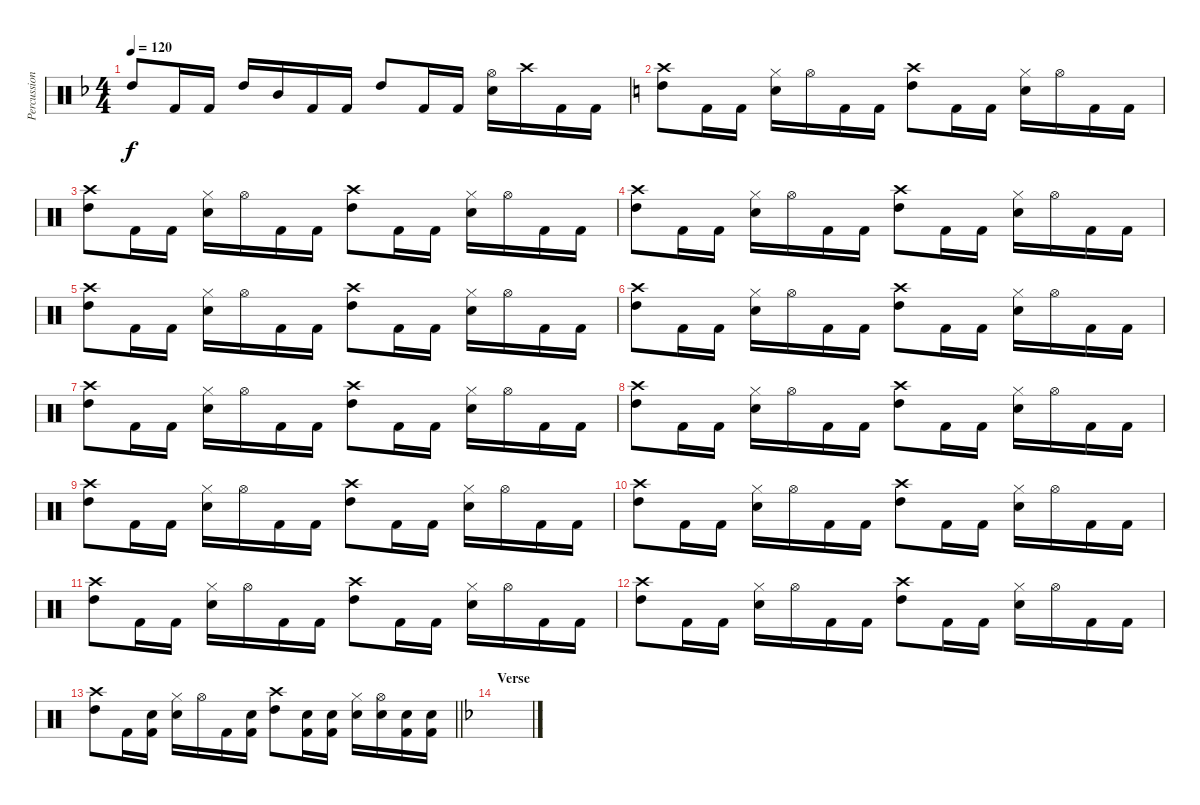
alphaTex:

\track ("Percussion" "Percussion") {instrument percussion}
\staff {score}
\articulation defaults
\ts (4 4)
\tempo 120
\clef neutral
\ks dminor "High Tom (hit)".8{dy f} "Kick (hit) 2".16 "Kick (hit) 2".16 "High Tom (hit)".16 "Mid Tom (hit)".16 "Kick (hit) 2".16 "Kick (hit) 2".16 "High Tom (hit)".8 "Kick (hit) 2".16 "Kick (hit) 2".16
("Hi-Hat (open)" "Electric Snare (hit)").16 "Crash high (hit)".16 "Kick (hit) 2".16 "Kick (hit) 2".16 |
\ks c
("Crash high (hit)" "High Tom (hit)").8 "Kick (hit) 2".16 "Kick (hit) 2".16 ("Hi-Hat (closed)" "Electric Snare (hit)").16 "Hi-Hat (open)".16 "Kick (hit) 2".16 "Kick (hit) 2".16 ("Crash high (hit)" "High Tom (hit)").8 "Kick (hit) 2".16 "Kick (hit) 2".16 ("Hi-Hat (closed)" "Electric Snare (hit)").16 "Hi-Hat (open)".16 "Kick (hit) 2".16 "Kick (hit) 2".16 |
("Crash high (hit)" "High Tom (hit)").8 "Kick (hit) 2".16 "Kick (hit) 2".16 ("Hi-Hat (closed)" "Electric Snare (hit)").16 "Hi-Hat (open)".16 "Kick (hit) 2".16 "Kick (hit) 2".16 ("Crash high (hit)" "High Tom (hit)").8 "Kick (hit) 2".16 "Kick (hit) 2".16 ("Hi-Hat (closed)" "Electric Snare (hit)").16 "Hi-Hat (open)".16 "Kick (hit) 2".16 "Kick (hit) 2".16 |
("Crash high (hit)" "High Tom (hit)").8 "Kick (hit) 2".16 "Kick (hit) 2".16 ("Hi-Hat (closed)" "Electric Snare (hit)").16 "Hi-Hat (open)".16 "Kick (hit) 2".16 "Kick (hit) 2".16 ("Crash high (hit)" "High Tom (hit)").8 "Kick (hit) 2".16 "Kick (hit) 2".16 ("Hi-Hat (closed)" "Electric Snare (hit)").16 "Hi-Hat (open)".16 "Kick (hit) 2".16 "Kick (hit) 2".16 |
("Crash high (hit)" "High Tom (hit)").8 "Kick (hit) 2".16 "Kick (hit) 2".16 ("Hi-Hat (closed)" "Electric Snare (hit)").16 "Hi-Hat (open)".16 "Kick (hit) 2".16 "Kick (hit) 2".16 ("Crash high (hit)" "High Tom (hit)").8 "Kick (hit) 2".16 "Kick (hit) 2".16 ("Hi-Hat (closed)" "Electric Snare (hit)").16 "Hi-Hat (open)".16 "Kick (hit) 2".16 "Kick (hit) 2".16 |
("Crash high (hit)" "High Tom (hit)").8 "Kick (hit) 2".16 "Kick (hit) 2".16 ("Hi-Hat (closed)" "Electric Snare (hit)").16 "Hi-Hat (open)".16 "Kick (hit) 2".16 "Kick (hit) 2".16 ("Crash high (hit)" "High Tom (hit)").8 "Kick (hit) 2".16 "Kick (hit) 2".16 ("Hi-Hat (closed)" "Electric Snare (hit)").16 "Hi-Hat (open)".16 "Kick (hit) 2".16 "Kick (hit) 2".16 |
("Crash high (hit)" "High Tom (hit)").8 "Kick (hit) 2".16 "Kick (hit) 2".16 ("Hi-Hat (closed)" "Electric Snare (hit)").16 "Hi-Hat (open)".16 "Kick (hit) 2".16 "Kick (hit) 2".16 ("Crash high (hit)" "High Tom (hit)").8 "Kick (hit) 2".16 "Kick (hit) 2".16 ("Hi-Hat (closed)" "Electric Snare (hit)").16 "Hi-Hat (open)".16 "Kick (hit) 2".16 "Kick (hit) 2".16 |
("Crash high (hit)" "High Tom (hit)").8 "Kick (hit) 2".16 "Kick (hit) 2".16 ("Hi-Hat (closed)" "Electric Snare (hit)").16 "Hi-Hat (open)".16 "Kick (hit) 2".16 "Kick (hit) 2".16 ("Crash high (hit)" "High Tom (hit)").8 "Kick (hit) 2".16 "Kick (hit) 2".16 ("Hi-Hat (closed)" "Electric Snare (hit)").16 "Hi-Hat (open)".16 "Kick (hit) 2".16 "Kick (hit) 2".16 |
("Crash high (hit)" "High Tom (hit)").8 "Kick (hit) 2".16 "Kick (hit) 2".16 ("Hi-Hat (closed)" "Electric Snare (hit)").16 "Hi-Hat (open)".16 "Kick (hit) 2".16 "Kick (hit) 2".16 ("Crash high (hit)" "High Tom (hit)").8 "Kick (hit) 2".16 "Kick (hit) 2".16 ("Hi-Hat (closed)" "Electric Snare (hit)").16 "Hi-Hat (open)".16 "Kick (hit) 2".16 "Kick (hit) 2".16 |
("Crash high (hit)" "High Tom (hit)").8 "Kick (hit) 2".16 "Kick (hit) 2".16 ("Hi-Hat (closed)" "Electric Snare (hit)").16 "Hi-Hat (open)".16 "Kick (hit) 2".16 "Kick (hit) 2".16 ("Crash high (hit)" "High Tom (hit)").8 "Kick (hit) 2".16 "Kick (hit) 2".16 ("Hi-Hat (closed)" "Electric Snare (hit)").16 "Hi-Hat (open)".16 "Kick (hit) 2".16 "Kick (hit) 2".16 |
("Crash high (hit)" "High Tom (hit)").8 "Kick (hit) 2".16 "Kick (hit) 2".16 ("Hi-Hat (closed)" "Electric Snare (hit)").16 "Hi-Hat (open)".16 "Kick (hit) 2".16 "Kick (hit) 2".16 ("Crash high (hit)" "High Tom (hit)").8 "Kick (hit) 2".16 "Kick (hit) 2".16 ("Hi-Hat (closed)" "Electric Snare (hit)").16 "Hi-Hat (open)".16 "Kick (hit) 2".16 "Kick (hit) 2".16 |
("Crash high (hit)" "High Tom (hit)").8 "Kick (hit) 2".16 "Kick (hit) 2".16 ("Hi-Hat (closed)" "Electric Snare (hit)").16 "Hi-Hat (open)".16 "Kick (hit) 2".16 "Kick (hit) 2".16 ("Crash high (hit)" "High Tom (hit)").8 "Kick (hit) 2".16 "Kick (hit) 2".16 ("Hi-Hat (closed)" "Electric Snare (hit)").16 "Hi-Hat (open)".16 "Kick (hit) 2".16 "Kick (hit) 2".16 |
\barLineRight lightlight
("Crash high (hit)" "High Tom (hit)").8 "Kick (hit) 2".16 ("Electric Snare (hit)" "Kick (hit) 2").16 ("Hi-Hat (closed)" "Electric Snare (hit)").16 "Hi-Hat (open)".16 "Kick (hit) 2".16 ("Electric Snare (hit)" "Kick (hit) 2").16 ("Crash high (hit)" "High Tom (hit)").8 ("Electric Snare (hit)" "Kick (hit) 2").16 ("Electric Snare (hit)" "Kick (hit) 2").16 ("Hi-Hat (closed)" "Electric Snare (hit)").16 ("Hi-Hat (open)" "Electric Snare (hit)").16 ("Electric Snare (hit)" "Kick (hit) 2").16 ("Electric Snare (hit)" "Kick (hit) 2").16 |
\section ("" "Verse")
\ks dminor
